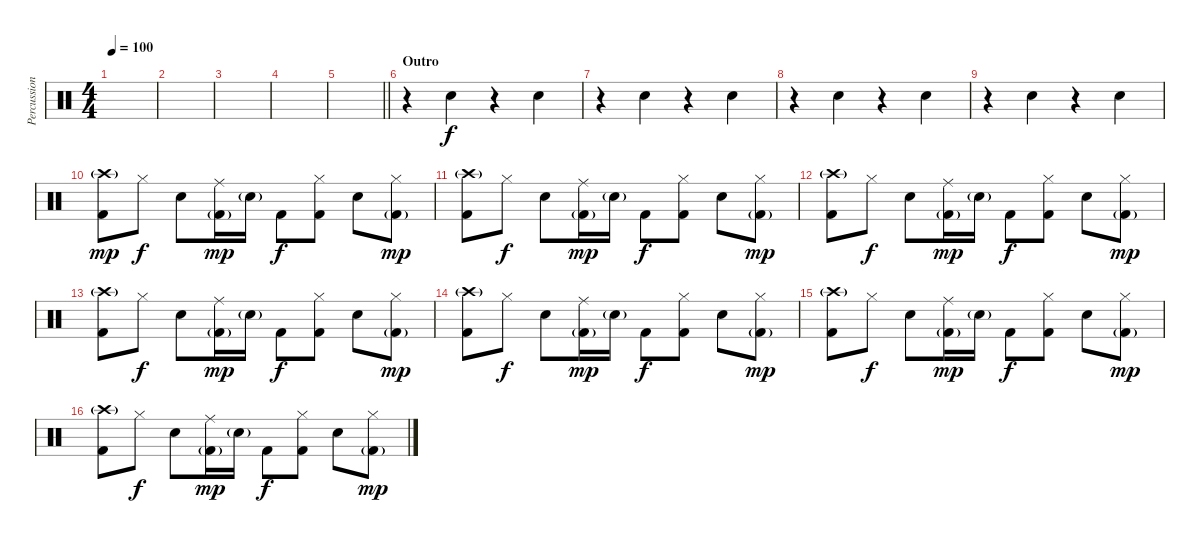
\track ("Percussion" "Percussion") {instrument percussion}
\staff {score}
\articulation defaults
\ts (4 4)
\tempo 100
\clef neutral
\ks c
|
|
|
|
\barLineRight lightlight
|
\section ("" "Outro")
r.4 "Snare (hit) 2".4{dy f} r.4 "Snare (hit) 2".4 |
r.4 "Snare (hit) 2".4 r.4 "Snare (hit) 2".4 |
r.4 "Snare (hit) 2".4 r.4 "Snare (hit) 2".4 |
r.4 "Snare (hit) 2".4 r.4 "Snare (hit) 2".4 |
("Crash high (hit)"{g} "Kick (hit) 2").8{dy mp} "Hi-Hat (closed)".8{dy f} "Snare (hit) 2".8 ("Ride (middle)" "Kick (hit) 2"{g}).16{dy mp} "Snare (hit) 2"{g}.16 "Kick (hit) 2".8{dy f} ("Hi-Hat (closed)" "Kick (hit) 2").8 "Snare (hit) 2".8 ("Hi-Hat (closed)" "Kick (hit) 2"{g}).8{dy mp} |
("Crash high (hit)"{g} "Kick (hit) 2").8 "Hi-Hat (closed)".8{dy f} "Snare (hit) 2".8 ("Ride (middle)" "Kick (hit) 2"{g}).16{dy mp} "Snare (hit) 2"{g}.16 "Kick (hit) 2".8{dy f} ("Hi-Hat (closed)" "Kick (hit) 2").8 "Snare (hit) 2".8 ("Hi-Hat (closed)" "Kick (hit) 2"{g}).8{dy mp} |
("Crash high (hit)"{g} "Kick (hit) 2").8 "Hi-Hat (closed)".8{dy f} "Snare (hit) 2".8 ("Ride (middle)" "Kick (hit) 2"{g}).16{dy mp} "Snare (hit) 2"{g}.16 "Kick (hit) 2".8{dy f} ("Hi-Hat (closed)" "Kick (hit) 2").8 "Snare (hit) 2".8 ("Hi-Hat (closed)" "Kick (hit) 2"{g}).8{dy mp} |
("Crash high (hit)"{g} "Kick (hit) 2").8 "Hi-Hat (closed)".8{dy f} "Snare (hit) 2".8 ("Ride (middle)" "Kick (hit) 2"{g}).16{dy mp} "Snare (hit) 2"{g}.16 "Kick (hit) 2".8{dy f} ("Hi-Hat (closed)" "Kick (hit) 2").8 "Snare (hit) 2".8 ("Hi-Hat (closed)" "Kick (hit) 2"{g}).8{dy mp} |
("Crash high (hit)"{g} "Kick (hit) 2").8 "Hi-Hat (closed)".8{dy f} "Snare (hit) 2".8 ("Ride (middle)" "Kick (hit) 2"{g}).16{dy mp} "Snare (hit) 2"{g}.16 "Kick (hit) 2".8{dy f} ("Hi-Hat (closed)" "Kick (hit) 2").8 "Snare (hit) 2".8 ("Hi-Hat (closed)" "Kick (hit) 2"{g}).8{dy mp} |
("Crash high (hit)"{g} "Kick (hit) 2").8 "Hi-Hat (closed)".8{dy f} "Snare (hit) 2".8 ("Ride (middle)" "Kick (hit) 2"{g}).16{dy mp} "Snare (hit) 2"{g}.16 "Kick (hit) 2".8{dy f} ("Hi-Hat (closed)" "Kick (hit) 2").8 "Snare (hit) 2".8 ("Hi-Hat (closed)" "Kick (hit) 2"{g}).8{dy mp} |
("Crash high (hit)"{g} "Kick (hit) 2").8 "Hi-Hat (closed)".8{dy f} "Snare (hit) 2".8 ("Ride (middle)" "Kick (hit) 2"{g}).16{dy mp} "Snare (hit) 2"{g}.16 "Kick (hit) 2".8{dy f} ("Hi-Hat (closed)" "Kick (hit) 2").8 "Snare (hit) 2".8 ("Hi-Hat (closed)" "Kick (hit) 2"{g}).8{dy mp}
